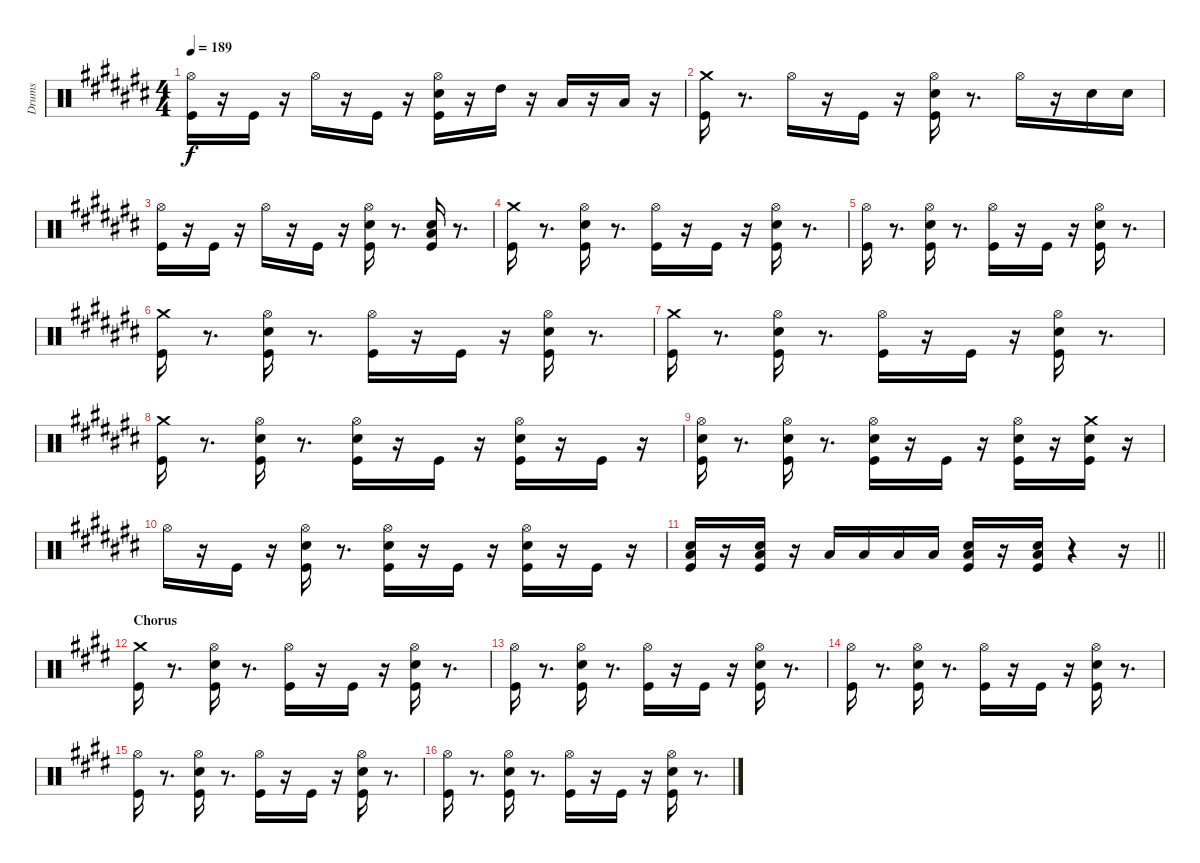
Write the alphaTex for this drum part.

\track ("Drums" "Drums") {instrument percussion}
\staff {score}
\articulation defaults
\ts (4 4)
\tempo 189
\clef neutral
\ks a#minor
("Hi-Hat (open)" "Kick (hit)").16{dy f} r.16 "Kick (hit)".16 r.16 "Hi-Hat (open)".16 r.16 "Kick (hit)".16 r.16 ("Hi-Hat (open)" "Electric Snare (hit)" "Kick (hit)").16 r.16 "High Tom (hit)".16 r.16 "Low Tom (hit)".16 r.16 "Low Floor Tom (hit)".16 r.16 |
\ks c#
("Crash medium (hit)" "Kick (hit)").16 r.8{d} "Hi-Hat (open)".16 r.16 "Kick (hit)".16 r.16 ("Hi-Hat (open)" "Electric Snare (hit)" "Kick (hit)").16 r.8{d} "Hi-Hat (open)".16 r.16 "Electric Snare (hit)".16 "Electric Snare (hit)".16 |
\ks a#minor
("Hi-Hat (open)" "Kick (hit)").16 r.16 "Kick (hit)".16 r.16 "Hi-Hat (open)".16 r.16 "Kick (hit)".16 r.16 ("Hi-Hat (open)" "Electric Snare (hit)" "Kick (hit)").16 r.8{d} ("Electric Snare (hit)" "Low Floor Tom (hit)" "Kick (hit)").16 r.8{d} |
("Crash medium (hit)" "Kick (hit)").16 r.8{d} ("Hi-Hat (open)" "Electric Snare (hit)" "Kick (hit)").16 r.8{d} ("Hi-Hat (open)" "Kick (hit)").16 r.16 "Kick (hit)".16 r.16 ("Hi-Hat (open)" "Electric Snare (hit)" "Kick (hit)").16 r.8{d} |
("Hi-Hat (open)" "Kick (hit)").16 r.8{d} ("Hi-Hat (open)" "Electric Snare (hit)" "Kick (hit)").16 r.8{d} ("Hi-Hat (open)" "Kick (hit)").16 r.16 "Kick (hit)".16 r.16 ("Hi-Hat (open)" "Electric Snare (hit)" "Kick (hit)").16 r.8{d} |
\ks c#
("Crash medium (hit)" "Kick (hit)").16 r.8{d} ("Hi-Hat (open)" "Electric Snare (hit)" "Kick (hit)").16 r.8{d} ("Hi-Hat (open)" "Kick (hit)").16 r.16 "Kick (hit)".16 r.16 ("Hi-Hat (open)" "Electric Snare (hit)" "Kick (hit)").16 r.8{d} |
\ks a#minor
("Crash medium (hit)" "Kick (hit)").16 r.8{d} ("Hi-Hat (open)" "Electric Snare (hit)" "Kick (hit)").16 r.8{d} ("Hi-Hat (open)" "Kick (hit)").16 r.16 "Kick (hit)".16 r.16 ("Hi-Hat (open)" "Electric Snare (hit)" "Kick (hit)").16 r.8{d} |
("Crash medium (hit)" "Kick (hit)").16 r.8{d} ("Hi-Hat (open)" "Electric Snare (hit)" "Kick (hit)").16 r.8{d} ("Hi-Hat (open)" "Electric Snare (hit)" "Kick (hit)").16 r.16 "Kick (hit)".16 r.16 ("Hi-Hat (open)" "Electric Snare (hit)" "Kick (hit)").16 r.16 "Kick (hit)".16 r.16 |
("Hi-Hat (open)" "Electric Snare (hit)" "Kick (hit)").16 r.8{d} ("Hi-Hat (open)" "Electric Snare (hit)" "Kick (hit)").16 r.8{d} ("Hi-Hat (open)" "Electric Snare (hit)" "Kick (hit)").16 r.16 "Kick (hit)".16 r.16 ("Hi-Hat (open)" "Electric Snare (hit)" "Kick (hit)").16 r.16 ("Crash medium (hit)" "Electric Snare (hit)" "Kick (hit)").16 r.16 |
"Hi-Hat (open)".16 r.16 "Kick (hit)".16 r.16 ("Hi-Hat (open)" "Electric Snare (hit)" "Kick (hit)").16 r.8{d} ("Hi-Hat (open)" "Electric Snare (hit)" "Kick (hit)").16 r.16 "Kick (hit)".16 r.16 ("Hi-Hat (open)" "Electric Snare (hit)" "Kick (hit)").16 r.16 "Kick (hit)".16 r.16 |
\barLineRight lightlight
("Electric Snare (hit)" "Low Floor Tom (hit)" "Kick (hit)").16 r.16 ("Electric Snare (hit)" "Low Floor Tom (hit)" "Kick (hit)").16 r.16 "Low Tom (hit)".16 "Low Tom (hit)".16 "Low Tom (hit)".16 "Low Tom (hit)".16 ("Electric Snare (hit)" "Low Floor Tom (hit)" "Kick (hit)").16 r.16 ("Electric Snare (hit)" "Low Floor Tom (hit)" "Kick (hit)").16 r.4 r.16 |
\section ("" "Chorus")
\ks e
("Crash medium (hit)" "Kick (hit)").16 r.8{d} ("Hi-Hat (open)" "Electric Snare (hit)" "Kick (hit)").16 r.8{d} ("Hi-Hat (open)" "Kick (hit)").16 r.16 "Kick (hit)".16 r.16 ("Hi-Hat (open)" "Electric Snare (hit)" "Kick (hit)").16 r.8{d} |
\ks c#minor
("Hi-Hat (open)" "Kick (hit)").16 r.8{d} ("Hi-Hat (open)" "Electric Snare (hit)" "Kick (hit)").16 r.8{d} ("Hi-Hat (open)" "Kick (hit)").16 r.16 "Kick (hit)".16 r.16 ("Hi-Hat (open)" "Electric Snare (hit)" "Kick (hit)").16 r.8{d} |
("Hi-Hat (open)" "Kick (hit)").16 r.8{d} ("Hi-Hat (open)" "Electric Snare (hit)" "Kick (hit)").16 r.8{d} ("Hi-Hat (open)" "Kick (hit)").16 r.16 "Kick (hit)".16 r.16 ("Hi-Hat (open)" "Electric Snare (hit)" "Kick (hit)").16 r.8{d} |
("Hi-Hat (open)" "Kick (hit)").16 r.8{d} ("Hi-Hat (open)" "Electric Snare (hit)" "Kick (hit)").16 r.8{d} ("Hi-Hat (open)" "Kick (hit)").16 r.16 "Kick (hit)".16 r.16 ("Hi-Hat (open)" "Electric Snare (hit)" "Kick (hit)").16 r.8{d} |
\ks e
("Hi-Hat (open)" "Kick (hit)").16 r.8{d} ("Hi-Hat (open)" "Electric Snare (hit)" "Kick (hit)").16 r.8{d} ("Hi-Hat (open)" "Kick (hit)").16 r.16 "Kick (hit)".16 r.16 ("Hi-Hat (open)" "Electric Snare (hit)" "Kick (hit)").16 r.8{d}
